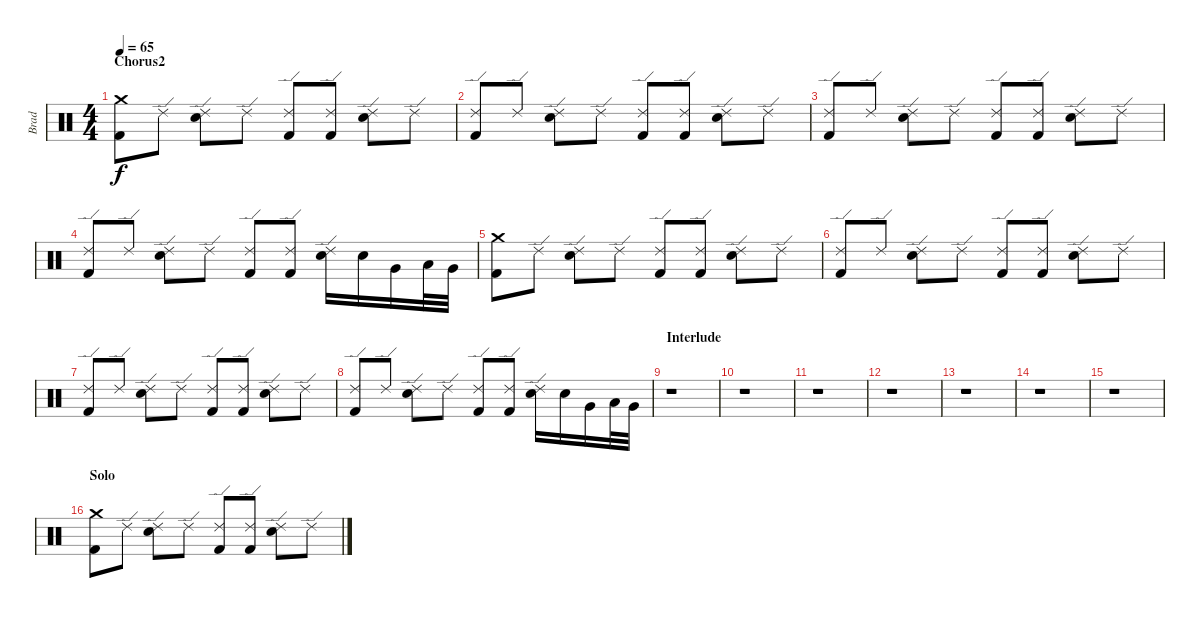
\track ("Brad" "Brad") {instrument percussion}
\staff {score}
\articulation defaults
\ts (4 4)
\section ("" "Chorus2")
\tempo 65
\clef neutral
\ks c
("Crash medium (hit)" "Kick (hit) 2").8{dy f} "Ride (edge) 2".8 ("Ride (edge) 2" "Electric Snare (hit)").8 "Ride (edge) 2".8 ("Ride (edge) 2" "Kick (hit) 2").8 ("Ride (edge) 2" "Kick (hit) 2").8 ("Ride (edge) 2" "Electric Snare (hit)").8 "Ride (edge) 2".8 |
("Ride (edge) 2" "Kick (hit) 2").8 "Ride (edge) 2".8 ("Ride (edge) 2" "Electric Snare (hit)").8 "Ride (edge) 2".8 ("Ride (edge) 2" "Kick (hit) 2").8 ("Ride (edge) 2" "Kick (hit) 2").8 ("Ride (edge) 2" "Electric Snare (hit)").8 "Ride (edge) 2".8 |
("Ride (edge) 2" "Kick (hit) 2").8 "Ride (edge) 2".8 ("Ride (edge) 2" "Electric Snare (hit)").8 "Ride (edge) 2".8 ("Ride (edge) 2" "Kick (hit) 2").8 ("Ride (edge) 2" "Kick (hit) 2").8 ("Ride (edge) 2" "Electric Snare (hit)").8 "Ride (edge) 2".8 |
("Ride (edge) 2" "Kick (hit) 2").8 "Ride (edge) 2".8 ("Ride (edge) 2" "Electric Snare (hit)").8 "Ride (edge) 2".8 ("Ride (edge) 2" "Kick (hit) 2").8 ("Ride (edge) 2" "Kick (hit) 2").8 ("Ride (edge) 2" "Electric Snare (hit)").16 "Electric Snare (hit)".16 "Very Low Tom (hit)".16 "Low Floor Tom (hit)".32 "Very Low Tom (hit)".32 |
("Crash medium (hit)" "Kick (hit) 2").8 "Ride (edge) 2".8 ("Ride (edge) 2" "Electric Snare (hit)").8 "Ride (edge) 2".8 ("Ride (edge) 2" "Kick (hit) 2").8 ("Ride (edge) 2" "Kick (hit) 2").8 ("Ride (edge) 2" "Electric Snare (hit)").8 "Ride (edge) 2".8 |
("Ride (edge) 2" "Kick (hit) 2").8 "Ride (edge) 2".8 ("Ride (edge) 2" "Electric Snare (hit)").8 "Ride (edge) 2".8 ("Ride (edge) 2" "Kick (hit) 2").8 ("Ride (edge) 2" "Kick (hit) 2").8 ("Ride (edge) 2" "Electric Snare (hit)").8 "Ride (edge) 2".8 |
("Ride (edge) 2" "Kick (hit) 2").8 "Ride (edge) 2".8 ("Ride (edge) 2" "Electric Snare (hit)").8 "Ride (edge) 2".8 ("Ride (edge) 2" "Kick (hit) 2").8 ("Ride (edge) 2" "Kick (hit) 2").8 ("Ride (edge) 2" "Electric Snare (hit)").8 "Ride (edge) 2".8 |
("Ride (edge) 2" "Kick (hit) 2").8 "Ride (edge) 2".8 ("Ride (edge) 2" "Electric Snare (hit)").8 "Ride (edge) 2".8 ("Ride (edge) 2" "Kick (hit) 2").8 ("Ride (edge) 2" "Kick (hit) 2").8 ("Ride (edge) 2" "Electric Snare (hit)").16 "Electric Snare (hit)".16 "Very Low Tom (hit)".16 "Low Floor Tom (hit)".32 "Very Low Tom (hit)".32 |
\section ("" "Interlude")
r.1 |
r.1 |
r.1 |
r.1 |
r.1 |
r.1 |
r.1 |
\section ("" "Solo")
("Crash medium (hit)" "Kick (hit) 2").8 "Ride (edge) 2".8 ("Ride (edge) 2" "Electric Snare (hit)").8 "Ride (edge) 2".8 ("Ride (edge) 2" "Kick (hit) 2").8 ("Ride (edge) 2" "Kick (hit) 2").8 ("Ride (edge) 2" "Electric Snare (hit)").8 "Ride (edge) 2".8
